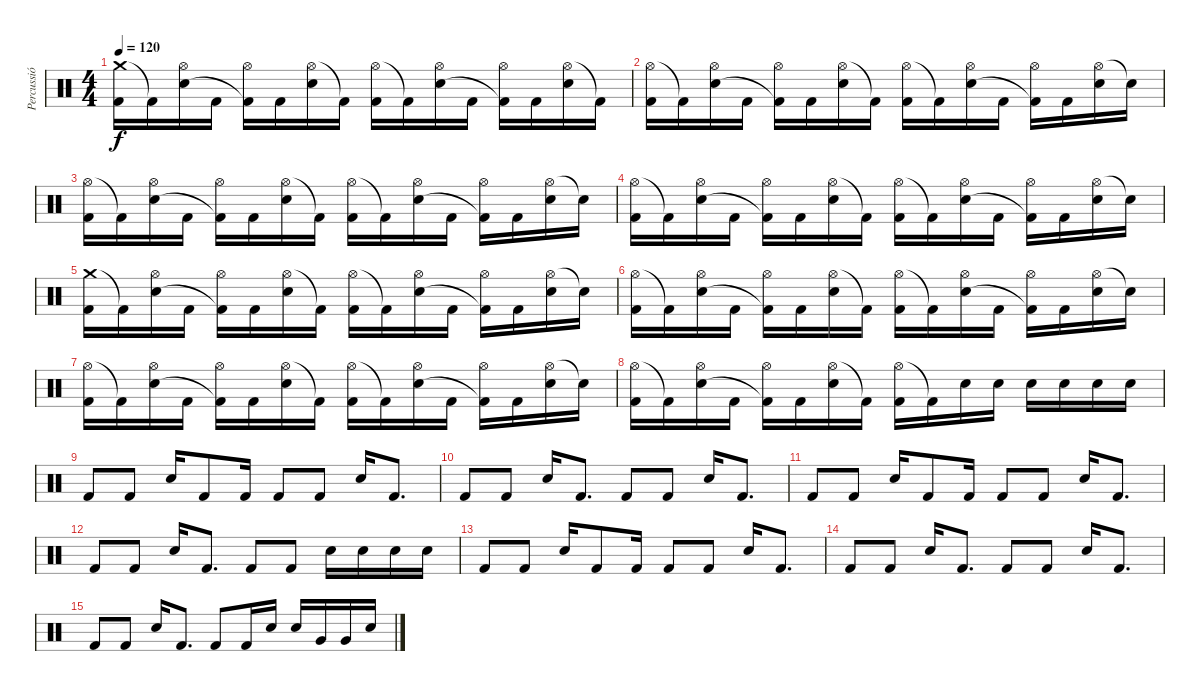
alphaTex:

\track ("Percussió" "Percussió") {instrument percussion}
\staff {score}
\articulation defaults
\ts (4 4)
\tempo 120
\clef neutral
\ks c
("Crash medium (hit)" "Kick (hit) 2").16{dy f} "Kick (hit) 2"{t}.16 ("Hi-Hat (open)" "Electric Snare (hit)").16 "Kick (hit) 2".16 ("Hi-Hat (open)" "Kick (hit) 2"{t}).16 "Kick (hit) 2".16 ("Hi-Hat (open)" "Electric Snare (hit)").16 "Kick (hit) 2"{t}.16 ("Hi-Hat (open)" "Kick (hit) 2").16 "Kick (hit) 2"{t}.16 ("Hi-Hat (open)" "Electric Snare (hit)").16 "Kick (hit) 2".16 ("Hi-Hat (open)" "Kick (hit) 2"{t}).16 "Kick (hit) 2".16 ("Hi-Hat (open)" "Electric Snare (hit)").16 "Kick (hit) 2"{t}.16 |
("Hi-Hat (open)" "Kick (hit) 2").16 "Kick (hit) 2"{t}.16 ("Hi-Hat (open)" "Electric Snare (hit)").16 "Kick (hit) 2".16 ("Hi-Hat (open)" "Kick (hit) 2"{t}).16 "Kick (hit) 2".16 ("Hi-Hat (open)" "Electric Snare (hit)").16 "Kick (hit) 2"{t}.16 ("Hi-Hat (open)" "Kick (hit) 2").16 "Kick (hit) 2"{t}.16 ("Hi-Hat (open)" "Electric Snare (hit)").16 "Kick (hit) 2".16 ("Hi-Hat (open)" "Kick (hit) 2"{t}).16 "Kick (hit) 2".16 ("Hi-Hat (open)" "Electric Snare (hit)").16 "Snare (hit)"{t}.16 |
("Hi-Hat (open)" "Kick (hit) 2").16 "Kick (hit) 2"{t}.16 ("Hi-Hat (open)" "Electric Snare (hit)").16 "Kick (hit) 2".16 ("Hi-Hat (open)" "Kick (hit) 2"{t}).16 "Kick (hit) 2".16 ("Hi-Hat (open)" "Electric Snare (hit)").16 "Kick (hit) 2"{t}.16 ("Hi-Hat (open)" "Kick (hit) 2").16 "Kick (hit) 2"{t}.16 ("Hi-Hat (open)" "Electric Snare (hit)").16 "Kick (hit) 2".16 ("Hi-Hat (open)" "Kick (hit) 2"{t}).16 "Kick (hit) 2".16 ("Hi-Hat (open)" "Electric Snare (hit)").16 "Snare (hit)"{t}.16 |
("Hi-Hat (open)" "Kick (hit) 2").16 "Kick (hit) 2"{t}.16 ("Hi-Hat (open)" "Electric Snare (hit)").16 "Kick (hit) 2".16 ("Hi-Hat (open)" "Kick (hit) 2"{t}).16 "Kick (hit) 2".16 ("Hi-Hat (open)" "Electric Snare (hit)").16 "Kick (hit) 2"{t}.16 ("Hi-Hat (open)" "Kick (hit) 2").16 "Kick (hit) 2"{t}.16 ("Hi-Hat (open)" "Electric Snare (hit)").16 "Kick (hit) 2".16 ("Hi-Hat (open)" "Kick (hit) 2"{t}).16 "Kick (hit) 2".16 ("Hi-Hat (open)" "Electric Snare (hit)").16 "Snare (hit)"{t}.16 |
("Crash medium (hit)" "Kick (hit) 2").16 "Kick (hit) 2"{t}.16 ("Hi-Hat (open)" "Electric Snare (hit)").16 "Kick (hit) 2".16 ("Hi-Hat (open)" "Kick (hit) 2"{t}).16 "Kick (hit) 2".16 ("Hi-Hat (open)" "Electric Snare (hit)").16 "Kick (hit) 2"{t}.16 ("Hi-Hat (open)" "Kick (hit) 2").16 "Kick (hit) 2"{t}.16 ("Hi-Hat (open)" "Electric Snare (hit)").16 "Kick (hit) 2".16 ("Hi-Hat (open)" "Kick (hit) 2"{t}).16 "Kick (hit) 2".16 ("Hi-Hat (open)" "Electric Snare (hit)").16 "Snare (hit)"{t}.16 |
("Hi-Hat (open)" "Kick (hit) 2").16 "Kick (hit) 2"{t}.16 ("Hi-Hat (open)" "Electric Snare (hit)").16 "Kick (hit) 2".16 ("Hi-Hat (open)" "Kick (hit) 2"{t}).16 "Kick (hit) 2".16 ("Hi-Hat (open)" "Electric Snare (hit)").16 "Kick (hit) 2"{t}.16 ("Hi-Hat (open)" "Kick (hit) 2").16 "Kick (hit) 2"{t}.16 ("Hi-Hat (open)" "Electric Snare (hit)").16 "Kick (hit) 2".16 ("Hi-Hat (open)" "Kick (hit) 2"{t}).16 "Kick (hit) 2".16 ("Hi-Hat (open)" "Electric Snare (hit)").16 "Snare (hit)"{t}.16 |
("Hi-Hat (open)" "Kick (hit) 2").16 "Kick (hit) 2"{t}.16 ("Hi-Hat (open)" "Electric Snare (hit)").16 "Kick (hit) 2".16 ("Hi-Hat (open)" "Kick (hit) 2"{t}).16 "Kick (hit) 2".16 ("Hi-Hat (open)" "Electric Snare (hit)").16 "Kick (hit) 2"{t}.16 ("Hi-Hat (open)" "Kick (hit) 2").16 "Kick (hit) 2"{t}.16 ("Hi-Hat (open)" "Electric Snare (hit)").16 "Kick (hit) 2".16 ("Hi-Hat (open)" "Kick (hit) 2"{t}).16 "Kick (hit) 2".16 ("Hi-Hat (open)" "Electric Snare (hit)").16 "Snare (hit)"{t}.16 |
("Hi-Hat (open)" "Kick (hit) 2").16 "Kick (hit) 2"{t}.16 ("Hi-Hat (open)" "Electric Snare (hit)").16 "Kick (hit) 2".16 ("Hi-Hat (open)" "Kick (hit) 2"{t}).16 "Kick (hit) 2".16 ("Hi-Hat (open)" "Electric Snare (hit)").16 "Kick (hit) 2"{t}.16 ("Hi-Hat (open)" "Kick (hit) 2").16 "Kick (hit) 2"{t}.16 "Electric Snare (hit)".16 "Electric Snare (hit)".16 "Electric Snare (hit)".16 "Electric Snare (hit)".16 "Electric Snare (hit)".16 "Electric Snare (hit)".16 |
"Kick (hit) 2".8 "Kick (hit) 2".8 "Electric Snare (hit)".16 "Kick (hit) 2".8 "Kick (hit) 2".16 "Kick (hit) 2".8 "Kick (hit) 2".8 "Electric Snare (hit)".16 "Kick (hit) 2".8{d} |
"Kick (hit) 2".8 "Kick (hit) 2".8 "Electric Snare (hit)".16 "Kick (hit) 2".8{d} "Kick (hit) 2".8 "Kick (hit) 2".8 "Electric Snare (hit)".16 "Kick (hit) 2".8{d} |
"Kick (hit) 2".8 "Kick (hit) 2".8 "Electric Snare (hit)".16 "Kick (hit) 2".8 "Kick (hit) 2".16 "Kick (hit) 2".8 "Kick (hit) 2".8 "Electric Snare (hit)".16 "Kick (hit) 2".8{d} |
"Kick (hit) 2".8 "Kick (hit) 2".8 "Electric Snare (hit)".16 "Kick (hit) 2".8{d} "Kick (hit) 2".8 "Kick (hit) 2".8 "Electric Snare (hit)".16 "Electric Snare (hit)".16 "Electric Snare (hit)".16 "Electric Snare (hit)".16 |
"Kick (hit) 2".8 "Kick (hit) 2".8 "Electric Snare (hit)".16 "Kick (hit) 2".8 "Kick (hit) 2".16 "Kick (hit) 2".8 "Kick (hit) 2".8 "Electric Snare (hit)".16 "Kick (hit) 2".8{d} |
"Kick (hit) 2".8 "Kick (hit) 2".8 "Electric Snare (hit)".16 "Kick (hit) 2".8{d} "Kick (hit) 2".8 "Kick (hit) 2".8 "Electric Snare (hit)".16 "Kick (hit) 2".8{d} |
"Kick (hit) 2".8 "Kick (hit) 2".8 "Electric Snare (hit)".16 "Kick (hit) 2".8{d} "Kick (hit) 2".8 "Kick (hit) 2".16 "Electric Snare (hit)".16 "Electric Snare (hit)".16 "Very Low Tom (hit)".16 "Very Low Tom (hit)".16 "Electric Snare (hit)".16
